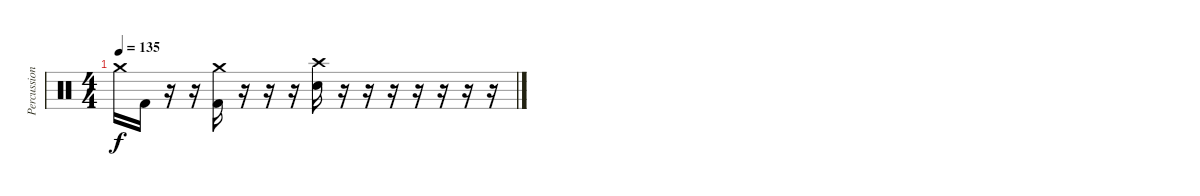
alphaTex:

\track ("Percussion" "Percussion") {instrument percussion}
\staff {score}
\articulation defaults
\ts (4 4)
\tempo 135
\clef neutral
\ks c "Crash medium (hit)".16{dy f} "Kick (hit) 2".16
r.16 r.16 ("Crash medium (hit)" "Kick (hit) 2").16 r.16 r.16 r.16 ("Crash high (hit)" "Snare (hit) 2").16 r.16 r.16 r.16 r.16 r.16 r.16 r.16
